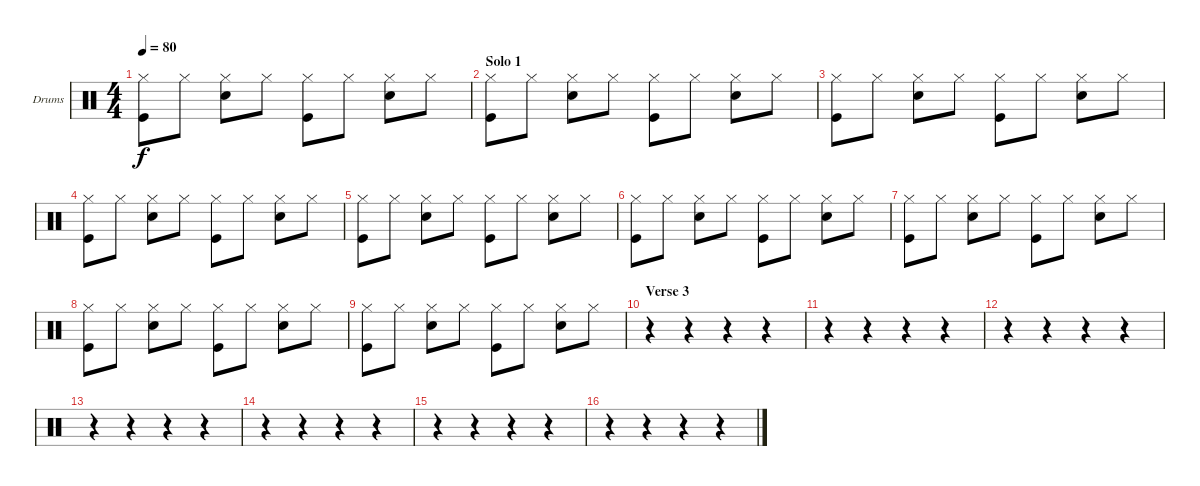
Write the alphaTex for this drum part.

\bracketExtendMode groupsimilarinstruments
\firstSystemTrackNameOrientation horizontal
\otherSystemsTrackNameOrientation horizontal
\chordDiagramsInScore
\track ("Drumkit" "Drums") {instrument percussion}
\staff {score}
\articulation defaults
\ts (4 4)
\tempo 80
\clef neutral
\ks c
("Hi-Hat (closed)" "Kick (hit)").8{dy f} "Hi-Hat (closed)".8 ("Hi-Hat (closed)" "Snare (hit) 2").8 "Hi-Hat (closed)".8 ("Hi-Hat (closed)" "Kick (hit)").8 "Hi-Hat (closed)".8 ("Hi-Hat (closed)" "Snare (hit) 2").8 "Hi-Hat (closed)".8 |
\section ("" "Solo 1")
("Hi-Hat (closed)" "Kick (hit)").8 "Hi-Hat (closed)".8 ("Hi-Hat (closed)" "Snare (hit) 2").8 "Hi-Hat (closed)".8 ("Hi-Hat (closed)" "Kick (hit)").8 "Hi-Hat (closed)".8 ("Hi-Hat (closed)" "Snare (hit) 2").8 "Hi-Hat (closed)".8 |
("Hi-Hat (closed)" "Kick (hit)").8 "Hi-Hat (closed)".8 ("Hi-Hat (closed)" "Snare (hit) 2").8 "Hi-Hat (closed)".8 ("Hi-Hat (closed)" "Kick (hit)").8 "Hi-Hat (closed)".8 ("Hi-Hat (closed)" "Snare (hit) 2").8 "Hi-Hat (closed)".8 |
("Hi-Hat (closed)" "Kick (hit)").8 "Hi-Hat (closed)".8 ("Hi-Hat (closed)" "Snare (hit) 2").8 "Hi-Hat (closed)".8 ("Hi-Hat (closed)" "Kick (hit)").8 "Hi-Hat (closed)".8 ("Hi-Hat (closed)" "Snare (hit) 2").8 "Hi-Hat (closed)".8 |
("Hi-Hat (closed)" "Kick (hit)").8 "Hi-Hat (closed)".8 ("Hi-Hat (closed)" "Snare (hit) 2").8 "Hi-Hat (closed)".8 ("Hi-Hat (closed)" "Kick (hit)").8 "Hi-Hat (closed)".8 ("Hi-Hat (closed)" "Snare (hit) 2").8 "Hi-Hat (closed)".8 |
("Hi-Hat (closed)" "Kick (hit)").8 "Hi-Hat (closed)".8 ("Hi-Hat (closed)" "Snare (hit) 2").8 "Hi-Hat (closed)".8 ("Hi-Hat (closed)" "Kick (hit)").8 "Hi-Hat (closed)".8 ("Hi-Hat (closed)" "Snare (hit) 2").8 "Hi-Hat (closed)".8 |
("Hi-Hat (closed)" "Kick (hit)").8 "Hi-Hat (closed)".8 ("Hi-Hat (closed)" "Snare (hit) 2").8 "Hi-Hat (closed)".8 ("Hi-Hat (closed)" "Kick (hit)").8 "Hi-Hat (closed)".8 ("Hi-Hat (closed)" "Snare (hit) 2").8 "Hi-Hat (closed)".8 |
("Hi-Hat (closed)" "Kick (hit)").8 "Hi-Hat (closed)".8 ("Hi-Hat (closed)" "Snare (hit) 2").8 "Hi-Hat (closed)".8 ("Hi-Hat (closed)" "Kick (hit)").8 "Hi-Hat (closed)".8 ("Hi-Hat (closed)" "Snare (hit) 2").8 "Hi-Hat (closed)".8 |
("Hi-Hat (closed)" "Kick (hit)").8 "Hi-Hat (closed)".8 ("Hi-Hat (closed)" "Snare (hit) 2").8 "Hi-Hat (closed)".8 ("Hi-Hat (closed)" "Kick (hit)").8 "Hi-Hat (closed)".8 ("Hi-Hat (closed)" "Snare (hit) 2").8 "Hi-Hat (closed)".8 |
\section ("" "Verse 3")
r.4 r.4 r.4 r.4 |
r.4 r.4 r.4 r.4 |
r.4 r.4 r.4 r.4 |
r.4 r.4 r.4 r.4 |
r.4 r.4 r.4 r.4 |
r.4 r.4 r.4 r.4 |
r.4 r.4 r.4 r.4
